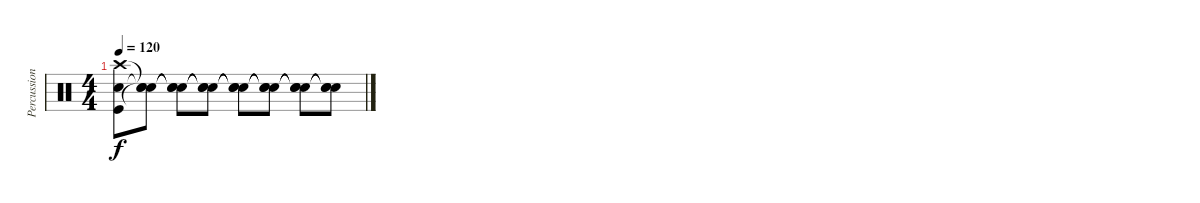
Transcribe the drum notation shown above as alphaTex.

\track ("Percussion" "Percussion") {instrument percussion}
\staff {score}
\articulation defaults
\ts (4 4)
\tempo 120
\clef neutral
\ks c
("Kick (hit)" "Electric Snare (hit)" "Crash high (hit)").8{dy f} ("Snare (hit)"{t} "Snare (hit)"{t} "Snare (hit)"{t}).8 ("Snare (hit)"{t} "Snare (hit)"{t} "Snare (hit)"{t}).8 ("Snare (hit)"{t} "Snare (hit)"{t} "Snare (hit)"{t}).8 ("Snare (hit)"{t} "Snare (hit)"{t} "Snare (hit)"{t}).8 ("Snare (hit)"{t} "Snare (hit)"{t} "Snare (hit)"{t}).8 ("Snare (hit)"{t} "Snare (hit)"{t} "Snare (hit)"{t}).8 ("Snare (hit)"{t} "Snare (hit)"{t} "Snare (hit)"{t}).8
